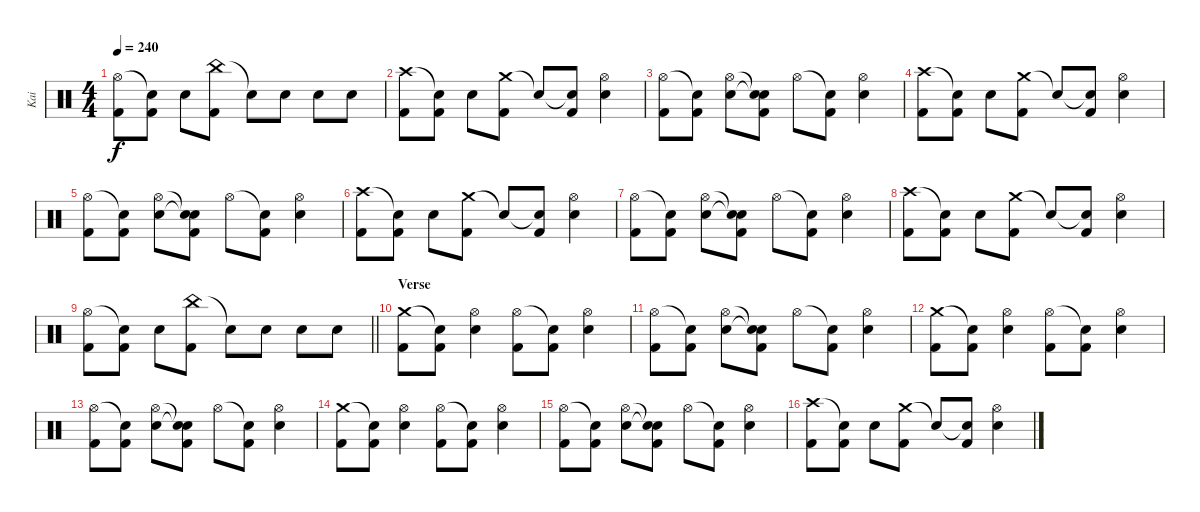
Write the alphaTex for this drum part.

\track ("Kai" "Kai") {instrument percussion}
\staff {score}
\articulation defaults
\ts (4 4)
\tempo 240
\clef neutral
\ks c
("Hi-Hat (open)" "Kick (hit) 2").8{dy f} ("Snare (hit)"{t} "Kick (hit) 2").8 "Snare (hit) 2".8 ("China (hit)" "Kick (hit) 2").8 "Snare (hit)"{t}.8 "Snare (hit) 2".8 "Snare (hit) 2".8 "Snare (hit) 2".8 |
("Crash high (hit)" "Kick (hit) 2").8 ("Snare (hit)"{t} "Kick (hit) 2").8 "Snare (hit) 2".8 ("Crash medium (hit)" "Kick (hit) 2").8 "Snare (hit)"{t}.8 ("Snare (hit)"{t} "Kick (hit) 2").8 ("Hi-Hat (open)" "Snare (hit) 2").4 |
("Hi-Hat (open)" "Kick (hit) 2").8 ("Snare (hit)"{t} "Kick (hit) 2").8 ("Hi-Hat (open)" "Snare (hit) 2").8 ("Snare (hit)"{t} "Snare (hit)"{t} "Kick (hit) 2").8 "Hi-Hat (open)".8 ("Snare (hit)"{t} "Kick (hit) 2").8 ("Hi-Hat (open)" "Snare (hit) 2").4 |
("Crash high (hit)" "Kick (hit) 2").8 ("Snare (hit)"{t} "Kick (hit) 2").8 "Snare (hit) 2".8 ("Crash medium (hit)" "Kick (hit) 2").8 "Snare (hit)"{t}.8 ("Snare (hit)"{t} "Kick (hit) 2").8 ("Hi-Hat (open)" "Snare (hit) 2").4 |
("Hi-Hat (open)" "Kick (hit) 2").8 ("Snare (hit)"{t} "Kick (hit) 2").8 ("Hi-Hat (open)" "Snare (hit) 2").8 ("Snare (hit)"{t} "Snare (hit)"{t} "Kick (hit) 2").8 "Hi-Hat (open)".8 ("Snare (hit)"{t} "Kick (hit) 2").8 ("Hi-Hat (open)" "Snare (hit) 2").4 |
("Crash high (hit)" "Kick (hit) 2").8 ("Snare (hit)"{t} "Kick (hit) 2").8 "Snare (hit) 2".8 ("Crash medium (hit)" "Kick (hit) 2").8 "Snare (hit)"{t}.8 ("Snare (hit)"{t} "Kick (hit) 2").8 ("Hi-Hat (open)" "Snare (hit) 2").4 |
("Hi-Hat (open)" "Kick (hit) 2").8 ("Snare (hit)"{t} "Kick (hit) 2").8 ("Hi-Hat (open)" "Snare (hit) 2").8 ("Snare (hit)"{t} "Snare (hit)"{t} "Kick (hit) 2").8 "Hi-Hat (open)".8 ("Snare (hit)"{t} "Kick (hit) 2").8 ("Hi-Hat (open)" "Snare (hit) 2").4 |
("Crash high (hit)" "Kick (hit) 2").8 ("Snare (hit)"{t} "Kick (hit) 2").8 "Snare (hit) 2".8 ("Crash medium (hit)" "Kick (hit) 2").8 "Snare (hit)"{t}.8 ("Snare (hit)"{t} "Kick (hit) 2").8 ("Hi-Hat (open)" "Snare (hit) 2").4 |
\barLineRight lightlight
("Hi-Hat (open)" "Kick (hit) 2").8 ("Snare (hit)"{t} "Kick (hit) 2").8 "Snare (hit) 2".8 ("China (hit)" "Kick (hit) 2").8 "Snare (hit)"{t}.8 "Snare (hit) 2".8 "Snare (hit) 2".8 "Snare (hit) 2".8 |
\section ("" "Verse")
("Crash medium (hit)" "Kick (hit) 2").8 ("Snare (hit)"{t} "Kick (hit) 2").8 ("Hi-Hat (open)" "Snare (hit) 2").4 ("Hi-Hat (open)" "Kick (hit) 2").8 ("Snare (hit)"{t} "Kick (hit) 2").8 ("Hi-Hat (open)" "Snare (hit) 2").4 |
("Hi-Hat (open)" "Kick (hit) 2").8 ("Snare (hit)"{t} "Kick (hit) 2").8 ("Hi-Hat (open)" "Snare (hit) 2").8 ("Snare (hit)"{t} "Snare (hit)"{t} "Kick (hit) 2").8 "Hi-Hat (open)".8 ("Snare (hit)"{t} "Kick (hit) 2").8 ("Hi-Hat (open)" "Snare (hit) 2").4 |
("Crash medium (hit)" "Kick (hit) 2").8 ("Snare (hit)"{t} "Kick (hit) 2").8 ("Hi-Hat (open)" "Snare (hit) 2").4 ("Hi-Hat (open)" "Kick (hit) 2").8 ("Snare (hit)"{t} "Kick (hit) 2").8 ("Hi-Hat (open)" "Snare (hit) 2").4 |
("Hi-Hat (open)" "Kick (hit) 2").8 ("Snare (hit)"{t} "Kick (hit) 2").8 ("Hi-Hat (open)" "Snare (hit) 2").8 ("Snare (hit)"{t} "Snare (hit)"{t} "Kick (hit) 2").8 "Hi-Hat (open)".8 ("Snare (hit)"{t} "Kick (hit) 2").8 ("Hi-Hat (open)" "Snare (hit) 2").4 |
("Crash medium (hit)" "Kick (hit) 2").8 ("Snare (hit)"{t} "Kick (hit) 2").8 ("Hi-Hat (open)" "Snare (hit) 2").4 ("Hi-Hat (open)" "Kick (hit) 2").8 ("Snare (hit)"{t} "Kick (hit) 2").8 ("Hi-Hat (open)" "Snare (hit) 2").4 |
("Hi-Hat (open)" "Kick (hit) 2").8 ("Snare (hit)"{t} "Kick (hit) 2").8 ("Hi-Hat (open)" "Snare (hit) 2").8 ("Snare (hit)"{t} "Snare (hit)"{t} "Kick (hit) 2").8 "Hi-Hat (open)".8 ("Snare (hit)"{t} "Kick (hit) 2").8 ("Hi-Hat (open)" "Snare (hit) 2").4 |
("Crash high (hit)" "Kick (hit) 2").8 ("Snare (hit)"{t} "Kick (hit) 2").8 "Snare (hit) 2".8 ("Crash medium (hit)" "Kick (hit) 2").8 "Snare (hit)"{t}.8 ("Snare (hit)"{t} "Kick (hit) 2").8 ("Hi-Hat (open)" "Snare (hit) 2").4
